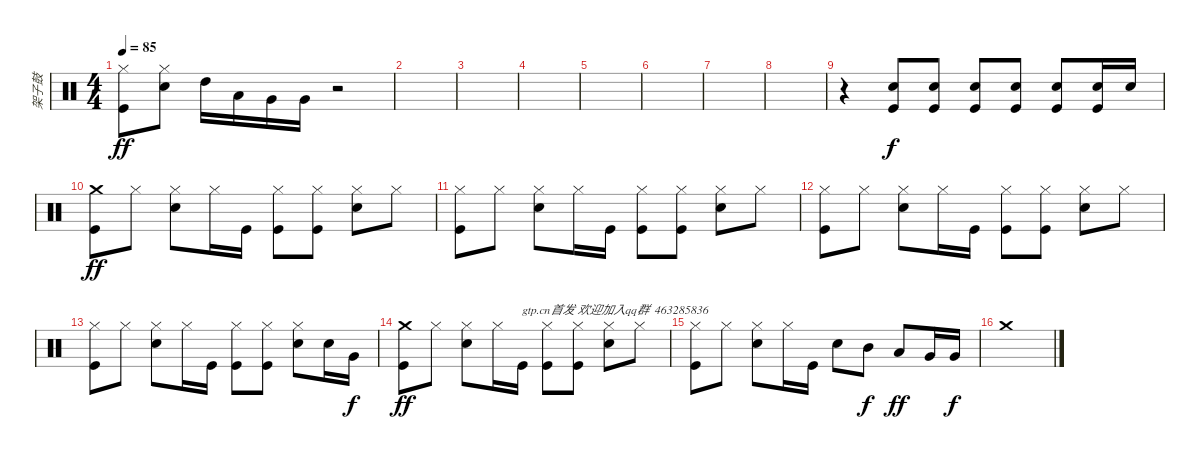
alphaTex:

\track ("架子鼓" "架子鼓") {instrument percussion}
\staff {score}
\articulation defaults
\ts (4 4)
\tempo 85
\clef neutral
\ks c
("Hi-Hat (closed)" "Kick (hit)").8{dy ff} ("Hi-Hat (closed)" "Electric Snare (hit)").8 "High Tom (hit)".16 "Low Tom (hit)".16 "Very Low Tom (hit)".16 "Very Low Tom (hit)".16 r.2 |
|
|
|
|
|
|
|
r.4 ("Electric Snare (hit)" "Kick (hit)").8{dy f} ("Electric Snare (hit)" "Kick (hit)").8 ("Electric Snare (hit)" "Kick (hit)").8 ("Electric Snare (hit)" "Kick (hit)").8 ("Electric Snare (hit)" "Kick (hit)").8 ("Electric Snare (hit)" "Kick (hit)").16 "Electric Snare (hit)".16 |
("Crash medium (hit)" "Kick (hit)").8{dy ff} "Hi-Hat (closed)".8 ("Hi-Hat (closed)" "Electric Snare (hit)").8 "Hi-Hat (closed)".16 "Kick (hit)".16 ("Hi-Hat (closed)" "Kick (hit)").8 ("Hi-Hat (closed)" "Kick (hit)").8 ("Hi-Hat (closed)" "Electric Snare (hit)").8 "Hi-Hat (closed)".8 |
("Hi-Hat (closed)" "Kick (hit)").8 "Hi-Hat (closed)".8 ("Hi-Hat (closed)" "Electric Snare (hit)").8 "Hi-Hat (closed)".16 "Kick (hit)".16 ("Hi-Hat (closed)" "Kick (hit)").8 ("Hi-Hat (closed)" "Kick (hit)").8 ("Hi-Hat (closed)" "Electric Snare (hit)").8 "Hi-Hat (closed)".8 |
("Hi-Hat (closed)" "Kick (hit)").8 "Hi-Hat (closed)".8 ("Hi-Hat (closed)" "Electric Snare (hit)").8 "Hi-Hat (closed)".16 "Kick (hit)".16 ("Hi-Hat (closed)" "Kick (hit)").8 ("Hi-Hat (closed)" "Kick (hit)").8 ("Hi-Hat (closed)" "Electric Snare (hit)").8 "Hi-Hat (closed)".8 |
("Hi-Hat (closed)" "Kick (hit)").8 "Hi-Hat (closed)".8 ("Hi-Hat (closed)" "Electric Snare (hit)").8 "Hi-Hat (closed)".16 "Kick (hit)".16 ("Hi-Hat (closed)" "Kick (hit)").8 ("Hi-Hat (closed)" "Kick (hit)").8 ("Hi-Hat (closed)" "Electric Snare (hit)").8 "Electric Snare (hit)".16 "Very Low Tom (hit)".16{dy f} |
("Crash medium (hit)" "Kick (hit)").8{dy ff} "Hi-Hat (closed)".8 ("Hi-Hat (closed)" "Electric Snare (hit)").8 "Hi-Hat (closed)".16 "Kick (hit)".16{txt "gtp.cn首发 欢迎加入qq群  463285836"} ("Hi-Hat (closed)" "Kick (hit)").8 ("Hi-Hat (closed)" "Kick (hit)").8 ("Hi-Hat (closed)" "Electric Snare (hit)").8 "Hi-Hat (closed)".8 |
("Hi-Hat (closed)" "Kick (hit)").8 "Hi-Hat (closed)".8 ("Hi-Hat (closed)" "Electric Snare (hit)").8 "Hi-Hat (closed)".16 "Kick (hit)".16 "Electric Snare (hit)".8 "Mid Tom (hit)".8{dy f} "Low Tom (hit)".8{dy ff} "Very Low Tom (hit)".16 "Very Low Tom (hit)".16{dy f} |
"Crash medium (hit)".1
